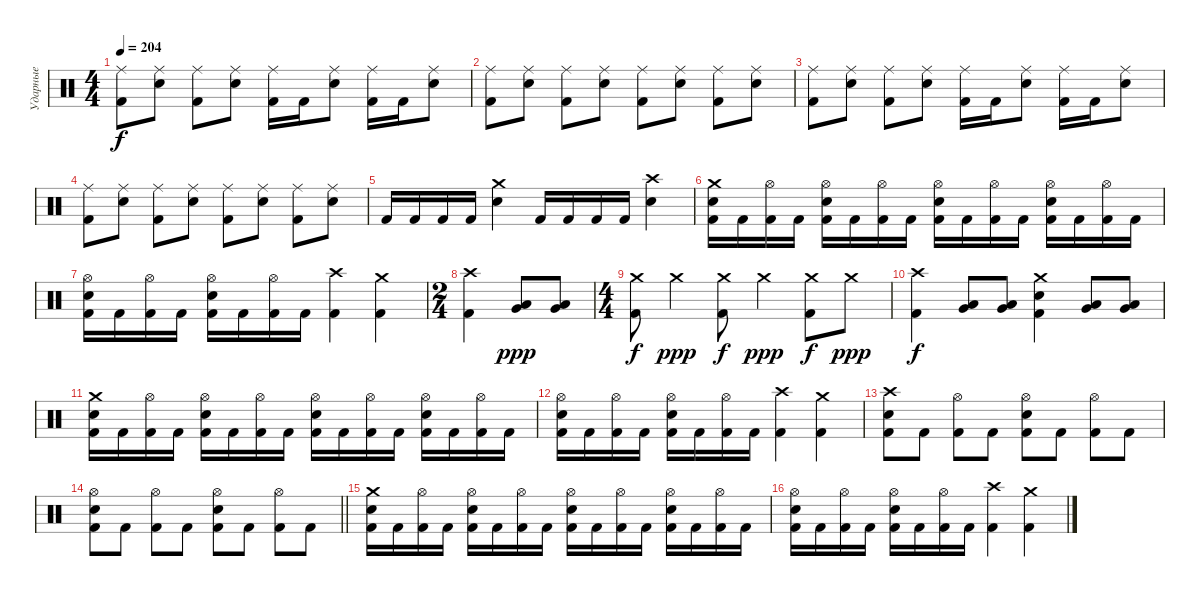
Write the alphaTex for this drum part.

\track ("Ударные" "Ударные") {instrument percussion}
\staff {score}
\articulation defaults
\ts (4 4)
\tempo 204
\clef neutral
\ks c
("Ride (middle)" "Kick (hit) 2").8{dy f} ("Ride (middle)" "Snare (hit) 2").8 ("Ride (middle)" "Kick (hit) 2").8 ("Ride (middle)" "Snare (hit) 2").8 ("Ride (middle)" "Kick (hit) 2").16 "Kick (hit) 2".16 ("Ride (middle)" "Snare (hit) 2").8 ("Ride (middle)" "Kick (hit) 2").16 "Kick (hit) 2".16 ("Ride (middle)" "Snare (hit) 2").8 |
("Ride (middle)" "Kick (hit) 2").8 ("Ride (middle)" "Snare (hit) 2").8 ("Ride (middle)" "Kick (hit) 2").8 ("Ride (middle)" "Snare (hit) 2").8 ("Ride (middle)" "Kick (hit) 2").8 ("Ride (middle)" "Snare (hit) 2").8 ("Ride (middle)" "Kick (hit) 2").8 ("Ride (middle)" "Snare (hit) 2").8 |
("Ride (middle)" "Kick (hit) 2").8 ("Ride (middle)" "Snare (hit) 2").8 ("Ride (middle)" "Kick (hit) 2").8 ("Ride (middle)" "Snare (hit) 2").8 ("Ride (middle)" "Kick (hit) 2").16 "Kick (hit) 2".16 ("Ride (middle)" "Snare (hit) 2").8 ("Ride (middle)" "Kick (hit) 2").16 "Kick (hit) 2".16 ("Ride (middle)" "Snare (hit) 2").8 |
("Ride (middle)" "Kick (hit) 2").8 ("Ride (middle)" "Snare (hit) 2").8 ("Ride (middle)" "Kick (hit) 2").8 ("Ride (middle)" "Snare (hit) 2").8 ("Ride (middle)" "Kick (hit) 2").8 ("Ride (middle)" "Snare (hit) 2").8 ("Ride (middle)" "Kick (hit) 2").8 ("Ride (middle)" "Snare (hit) 2").8 |
"Kick (hit) 2".16 "Kick (hit) 2".16 "Kick (hit) 2".16 "Kick (hit) 2".16 ("Crash medium (hit)" "Snare (hit) 2").4 "Kick (hit) 2".16 "Kick (hit) 2".16 "Kick (hit) 2".16 "Kick (hit) 2".16 ("Crash high (hit)" "Snare (hit) 2").4 |
("Crash medium (hit)" "Snare (hit) 2" "Kick (hit) 2").16 "Kick (hit) 2".16 ("Hi-Hat (open)" "Kick (hit) 2").16 "Kick (hit) 2".16 ("Hi-Hat (open)" "Snare (hit) 2" "Kick (hit) 2").16 "Kick (hit) 2".16 ("Hi-Hat (open)" "Kick (hit) 2").16 "Kick (hit) 2".16 ("Hi-Hat (open)" "Snare (hit) 2" "Kick (hit) 2").16 "Kick (hit) 2".16 ("Hi-Hat (open)" "Kick (hit) 2").16 "Kick (hit) 2".16 ("Hi-Hat (open)" "Snare (hit) 2" "Kick (hit) 2").16 "Kick (hit) 2".16 ("Hi-Hat (open)" "Kick (hit) 2").16 "Kick (hit) 2".16 |
("Hi-Hat (open)" "Snare (hit) 2" "Kick (hit) 2").16 "Kick (hit) 2".16 ("Hi-Hat (open)" "Kick (hit) 2").16 "Kick (hit) 2".16 ("Hi-Hat (open)" "Snare (hit) 2" "Kick (hit) 2").16 "Kick (hit) 2".16 ("Hi-Hat (open)" "Kick (hit) 2").16 "Kick (hit) 2".16 ("Crash high (hit)" "Kick (hit) 2").4 ("Crash medium (hit)" "Kick (hit) 2").4 |
\ts (2 4)
("Crash high (hit)" "Kick (hit) 2").4 ("Low Tom (hit)" "Very Low Tom (hit)").8{dy ppp} ("Low Tom (hit)" "Very Low Tom (hit)").8 |
\ts (4 4)
("Crash medium (hit)" "Kick (hit) 2").8{dy f} "Crash medium (hit)".4{dy ppp} ("Crash medium (hit)" "Kick (hit) 2").8{dy f} "Crash medium (hit)".4{dy ppp} ("Crash medium (hit)" "Kick (hit) 2").8{dy f} "Crash medium (hit)".8{dy ppp} |
("Crash high (hit)" "Kick (hit) 2").4{dy f} ("Low Tom (hit)" "Very Low Tom (hit)").8 ("Low Tom (hit)" "Very Low Tom (hit)").8 ("Crash medium (hit)" "Snare (hit) 2" "Kick (hit) 2").4 ("Low Tom (hit)" "Very Low Tom (hit)").8 ("Low Tom (hit)" "Very Low Tom (hit)").8 |
("Crash medium (hit)" "Snare (hit) 2" "Kick (hit) 2").16 "Kick (hit) 2".16 ("Hi-Hat (open)" "Kick (hit) 2").16 "Kick (hit) 2".16 ("Hi-Hat (open)" "Snare (hit) 2" "Kick (hit) 2").16 "Kick (hit) 2".16 ("Hi-Hat (open)" "Kick (hit) 2").16 "Kick (hit) 2".16 ("Hi-Hat (open)" "Snare (hit) 2" "Kick (hit) 2").16 "Kick (hit) 2".16 ("Hi-Hat (open)" "Kick (hit) 2").16 "Kick (hit) 2".16 ("Hi-Hat (open)" "Snare (hit) 2" "Kick (hit) 2").16 "Kick (hit) 2".16 ("Hi-Hat (open)" "Kick (hit) 2").16 "Kick (hit) 2".16 |
("Hi-Hat (open)" "Snare (hit) 2" "Kick (hit) 2").16 "Kick (hit) 2".16 ("Hi-Hat (open)" "Kick (hit) 2").16 "Kick (hit) 2".16 ("Hi-Hat (open)" "Snare (hit) 2" "Kick (hit) 2").16 "Kick (hit) 2".16 ("Hi-Hat (open)" "Kick (hit) 2").16 "Kick (hit) 2".16 ("Crash high (hit)" "Kick (hit) 2").4 ("Crash medium (hit)" "Kick (hit) 2").4 |
("Crash high (hit)" "Snare (hit) 2" "Kick (hit) 2").8 "Kick (hit) 2".8 ("Hi-Hat (open)" "Kick (hit) 2").8 "Kick (hit) 2".8 ("Hi-Hat (open)" "Snare (hit) 2" "Kick (hit) 2").8 "Kick (hit) 2".8 ("Hi-Hat (open)" "Kick (hit) 2").8 "Kick (hit) 2".8 |
\barLineRight lightlight
("Hi-Hat (open)" "Snare (hit) 2" "Kick (hit) 2").8 "Kick (hit) 2".8 ("Hi-Hat (open)" "Kick (hit) 2").8 "Kick (hit) 2".8 ("Hi-Hat (open)" "Snare (hit) 2" "Kick (hit) 2").8 "Kick (hit) 2".8 ("Hi-Hat (open)" "Kick (hit) 2").8 "Kick (hit) 2".8 |
("Crash medium (hit)" "Snare (hit) 2" "Kick (hit) 2").16 "Kick (hit) 2".16 ("Hi-Hat (open)" "Kick (hit) 2").16 "Kick (hit) 2".16 ("Hi-Hat (open)" "Snare (hit) 2" "Kick (hit) 2").16 "Kick (hit) 2".16 ("Hi-Hat (open)" "Kick (hit) 2").16 "Kick (hit) 2".16 ("Hi-Hat (open)" "Snare (hit) 2" "Kick (hit) 2").16 "Kick (hit) 2".16 ("Hi-Hat (open)" "Kick (hit) 2").16 "Kick (hit) 2".16 ("Hi-Hat (open)" "Snare (hit) 2" "Kick (hit) 2").16 "Kick (hit) 2".16 ("Hi-Hat (open)" "Kick (hit) 2").16 "Kick (hit) 2".16 |
("Hi-Hat (open)" "Snare (hit) 2" "Kick (hit) 2").16 "Kick (hit) 2".16 ("Hi-Hat (open)" "Kick (hit) 2").16 "Kick (hit) 2".16 ("Hi-Hat (open)" "Snare (hit) 2" "Kick (hit) 2").16 "Kick (hit) 2".16 ("Hi-Hat (open)" "Kick (hit) 2").16 "Kick (hit) 2".16 ("Crash high (hit)" "Kick (hit) 2").4 ("Crash medium (hit)" "Kick (hit) 2").4
